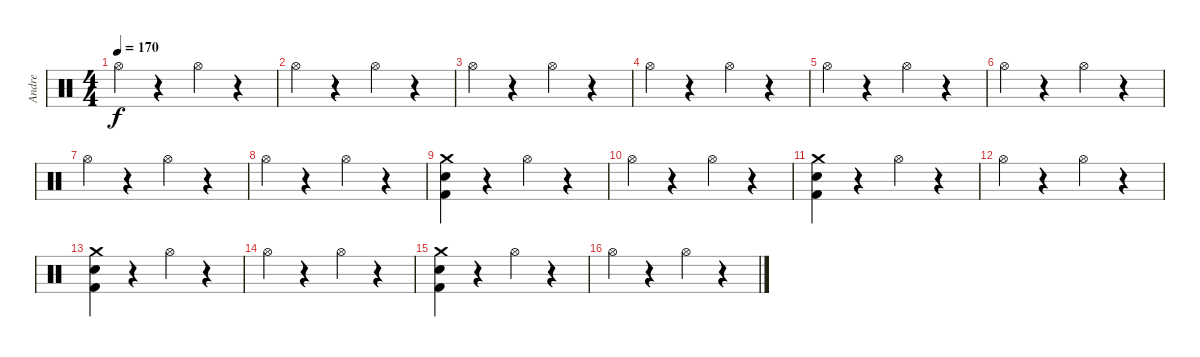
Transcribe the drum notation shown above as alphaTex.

\track ("Andre" "Andre") {instrument percussion}
\staff {score}
\articulation defaults
\ts (4 4)
\tempo 170
\clef neutral
\ks c "Hi-Hat (open)".4{dy f}
r.4 "Hi-Hat (open)".4 r.4 |
"Hi-Hat (open)".4 r.4 "Hi-Hat (open)".4 r.4 |
"Hi-Hat (open)".4 r.4 "Hi-Hat (open)".4 r.4 |
"Hi-Hat (open)".4 r.4 "Hi-Hat (open)".4 r.4 |
"Hi-Hat (open)".4 r.4 "Hi-Hat (open)".4 r.4 |
"Hi-Hat (open)".4 r.4 "Hi-Hat (open)".4 r.4 |
"Hi-Hat (open)".4 r.4 "Hi-Hat (open)".4 r.4 |
"Hi-Hat (open)".4 r.4 "Hi-Hat (open)".4 r.4 |
("Crash medium (hit)" "Snare (hit) 2" "Kick (hit) 2").4 r.4 "Hi-Hat (open)".4 r.4 |
"Hi-Hat (open)".4 r.4 "Hi-Hat (open)".4 r.4 |
("Crash medium (hit)" "Snare (hit) 2" "Kick (hit) 2").4 r.4 "Hi-Hat (open)".4 r.4 |
"Hi-Hat (open)".4 r.4 "Hi-Hat (open)".4 r.4 |
("Crash medium (hit)" "Snare (hit) 2" "Kick (hit) 2").4 r.4 "Hi-Hat (open)".4 r.4 |
"Hi-Hat (open)".4 r.4 "Hi-Hat (open)".4 r.4 |
("Crash medium (hit)" "Snare (hit) 2" "Kick (hit) 2").4 r.4 "Hi-Hat (open)".4 r.4 |
"Hi-Hat (open)".4 r.4 "Hi-Hat (open)".4 r.4
